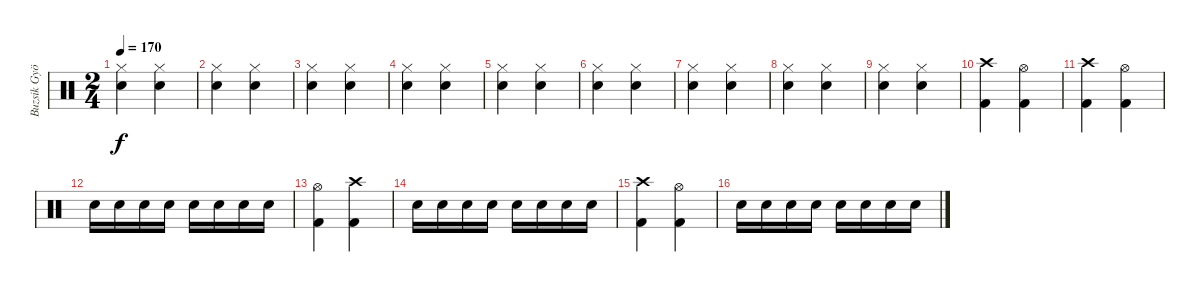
\track ("Buzsik György (dob)" "Buzsik Gyö") {instrument percussion}
\staff {score}
\articulation defaults
\ts (2 4)
\tempo 170
\clef neutral
\ks c
("Hi-Hat (closed)" "Snare (hit) 2").4{dy f} ("Hi-Hat (closed)" "Snare (hit) 2").4 |
("Hi-Hat (closed)" "Snare (hit) 2").4 ("Hi-Hat (closed)" "Snare (hit) 2").4 |
("Hi-Hat (closed)" "Snare (hit) 2").4 ("Hi-Hat (closed)" "Snare (hit) 2").4 |
("Hi-Hat (closed)" "Snare (hit) 2").4 ("Hi-Hat (closed)" "Snare (hit) 2").4 |
("Hi-Hat (closed)" "Snare (hit) 2").4 ("Hi-Hat (closed)" "Snare (hit) 2").4 |
("Hi-Hat (closed)" "Snare (hit) 2").4 ("Hi-Hat (closed)" "Snare (hit) 2").4 |
("Hi-Hat (closed)" "Snare (hit) 2").4 ("Hi-Hat (closed)" "Snare (hit) 2").4 |
("Hi-Hat (closed)" "Snare (hit) 2").4 ("Hi-Hat (closed)" "Snare (hit) 2").4 |
("Hi-Hat (closed)" "Snare (hit) 2").4 ("Hi-Hat (closed)" "Snare (hit) 2").4 |
("Crash high (hit)" "Kick (hit) 2").4 ("Hi-Hat (open)" "Kick (hit) 2").4 |
("Crash high (hit)" "Kick (hit) 2").4 ("Hi-Hat (open)" "Kick (hit) 2").4 |
"Snare (hit) 2".16 "Snare (hit) 2".16 "Snare (hit) 2".16 "Snare (hit) 2".16 "Snare (hit) 2".16 "Snare (hit) 2".16 "Snare (hit) 2".16 "Snare (hit) 2".16 |
("Hi-Hat (open)" "Kick (hit) 2").4 ("Crash high (hit)" "Kick (hit) 2").4 |
"Snare (hit) 2".16 "Snare (hit) 2".16 "Snare (hit) 2".16 "Snare (hit) 2".16 "Snare (hit) 2".16 "Snare (hit) 2".16 "Snare (hit) 2".16 "Snare (hit) 2".16 |
("Crash high (hit)" "Kick (hit) 2").4 ("Hi-Hat (open)" "Kick (hit) 2").4 |
"Snare (hit) 2".16 "Snare (hit) 2".16 "Snare (hit) 2".16 "Snare (hit) 2".16 "Snare (hit) 2".16 "Snare (hit) 2".16 "Snare (hit) 2".16 "Snare (hit) 2".16
